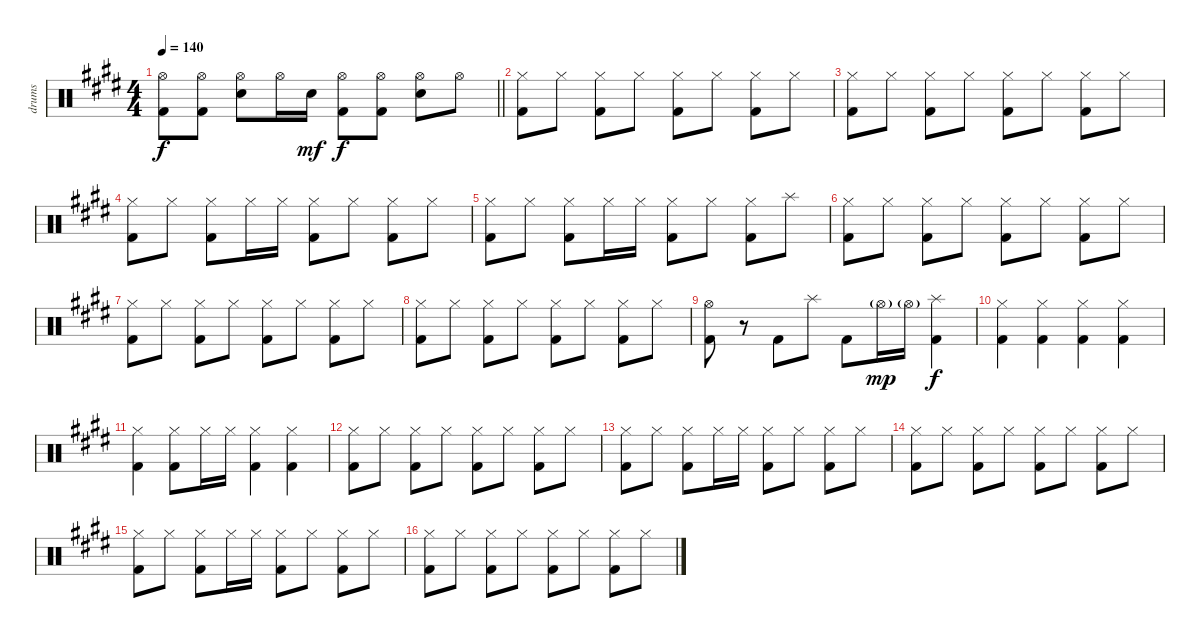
\track ("drums" "drums") {instrument percussion}
\staff {score}
\articulation defaults
\ts (4 4)
\tempo 140
\clef neutral
\barLineRight lightlight
\ks e
("Hi-Hat (open)" "Kick (hit) 2").8{dy f} ("Hi-Hat (open)" "Kick (hit) 2").8 ("Hi-Hat (open)" "Snare (hit) 2").8 "Hi-Hat (open)".16 "Snare (hit) 2".16{dy mf} ("Hi-Hat (open)" "Kick (hit) 2").8{dy f} ("Hi-Hat (open)" "Kick (hit) 2").8 ("Hi-Hat (open)" "Snare (hit) 2").8 "Hi-Hat (open)".8 |
("Hi-Hat (closed)" "Kick (hit) 2").8 "Hi-Hat (closed)".8 ("Hi-Hat (closed)" "Kick (hit) 2").8 "Hi-Hat (closed)".8 ("Hi-Hat (closed)" "Kick (hit) 2").8 "Hi-Hat (closed)".8 ("Hi-Hat (closed)" "Kick (hit) 2").8 "Hi-Hat (closed)".8 |
("Hi-Hat (closed)" "Kick (hit) 2").8 "Hi-Hat (closed)".8 ("Hi-Hat (closed)" "Kick (hit) 2").8 "Hi-Hat (closed)".8 ("Hi-Hat (closed)" "Kick (hit) 2").8 "Hi-Hat (closed)".8 ("Hi-Hat (closed)" "Kick (hit) 2").8 "Hi-Hat (closed)".8 |
("Hi-Hat (closed)" "Kick (hit) 2").8 "Hi-Hat (closed)".8 ("Hi-Hat (closed)" "Kick (hit) 2").8 "Hi-Hat (closed)".16 "Hi-Hat (closed)".16 ("Hi-Hat (closed)" "Kick (hit) 2").8 "Hi-Hat (closed)".8 ("Hi-Hat (closed)" "Kick (hit) 2").8 "Hi-Hat (closed)".8 |
("Hi-Hat (closed)" "Kick (hit) 2").8 "Hi-Hat (closed)".8 ("Hi-Hat (closed)" "Kick (hit) 2").8 "Hi-Hat (closed)".16 "Hi-Hat (closed)".16 ("Hi-Hat (closed)" "Kick (hit) 2").8 "Hi-Hat (closed)".8 ("Hi-Hat (closed)" "Kick (hit) 2").8 "Splash (hit)".8 |
("Hi-Hat (closed)" "Kick (hit) 2").8 "Hi-Hat (closed)".8 ("Hi-Hat (closed)" "Kick (hit) 2").8 "Hi-Hat (closed)".8 ("Hi-Hat (closed)" "Kick (hit) 2").8 "Hi-Hat (closed)".8 ("Hi-Hat (closed)" "Kick (hit) 2").8 "Hi-Hat (closed)".8 |
("Hi-Hat (closed)" "Kick (hit) 2").8 "Hi-Hat (closed)".8 ("Hi-Hat (closed)" "Kick (hit) 2").8 "Hi-Hat (closed)".8 ("Hi-Hat (closed)" "Kick (hit) 2").8 "Hi-Hat (closed)".8 ("Hi-Hat (closed)" "Kick (hit) 2").8 "Hi-Hat (closed)".8 |
("Hi-Hat (closed)" "Kick (hit) 2").8 "Hi-Hat (closed)".8 ("Hi-Hat (closed)" "Kick (hit) 2").8 "Hi-Hat (closed)".8 ("Hi-Hat (closed)" "Kick (hit) 2").8 "Hi-Hat (closed)".8 ("Hi-Hat (closed)" "Kick (hit) 2").8 "Hi-Hat (closed)".8 |
("Hi-Hat (open)" "Kick (hit) 2").8 r.8 "Kick (hit) 2".8 "Splash (hit)".8 "Kick (hit) 2".8 "Hi-Hat (open)"{g}.16{dy mp} "Hi-Hat (open)"{g}.16 ("Splash (hit)" "Kick (hit) 2").4{dy f} |
("Hi-Hat (closed)" "Kick (hit) 2").4 ("Hi-Hat (closed)" "Kick (hit) 2").4 ("Hi-Hat (closed)" "Kick (hit) 2").4 ("Hi-Hat (closed)" "Kick (hit) 2").4 |
("Hi-Hat (closed)" "Kick (hit) 2").4 ("Hi-Hat (closed)" "Kick (hit) 2").8 "Hi-Hat (closed)".16 "Hi-Hat (closed)".16 ("Hi-Hat (closed)" "Kick (hit) 2").4 ("Hi-Hat (closed)" "Kick (hit) 2").4 |
("Hi-Hat (closed)" "Kick (hit) 2").8 "Hi-Hat (closed)".8 ("Hi-Hat (closed)" "Kick (hit) 2").8 "Hi-Hat (closed)".8 ("Hi-Hat (closed)" "Kick (hit) 2").8 "Hi-Hat (closed)".8 ("Hi-Hat (closed)" "Kick (hit) 2").8 "Hi-Hat (closed)".8 |
("Hi-Hat (closed)" "Kick (hit) 2").8 "Hi-Hat (closed)".8 ("Hi-Hat (closed)" "Kick (hit) 2").8 "Hi-Hat (closed)".16 "Hi-Hat (closed)".16 ("Hi-Hat (closed)" "Kick (hit) 2").8 "Hi-Hat (closed)".8 ("Hi-Hat (closed)" "Kick (hit) 2").8 "Hi-Hat (closed)".8 |
("Hi-Hat (closed)" "Kick (hit) 2").8 "Hi-Hat (closed)".8 ("Hi-Hat (closed)" "Kick (hit) 2").8 "Hi-Hat (closed)".8 ("Hi-Hat (closed)" "Kick (hit) 2").8 "Hi-Hat (closed)".8 ("Hi-Hat (closed)" "Kick (hit) 2").8 "Hi-Hat (closed)".8 |
("Hi-Hat (closed)" "Kick (hit) 2").8 "Hi-Hat (closed)".8 ("Hi-Hat (closed)" "Kick (hit) 2").8 "Hi-Hat (closed)".16 "Hi-Hat (closed)".16 ("Hi-Hat (closed)" "Kick (hit) 2").8 "Hi-Hat (closed)".8 ("Hi-Hat (closed)" "Kick (hit) 2").8 "Hi-Hat (closed)".8 |
("Hi-Hat (closed)" "Kick (hit) 2").8 "Hi-Hat (closed)".8 ("Hi-Hat (closed)" "Kick (hit) 2").8 "Hi-Hat (closed)".8 ("Hi-Hat (closed)" "Kick (hit) 2").8 "Hi-Hat (closed)".8 ("Hi-Hat (closed)" "Kick (hit) 2").8 "Hi-Hat (closed)".8
